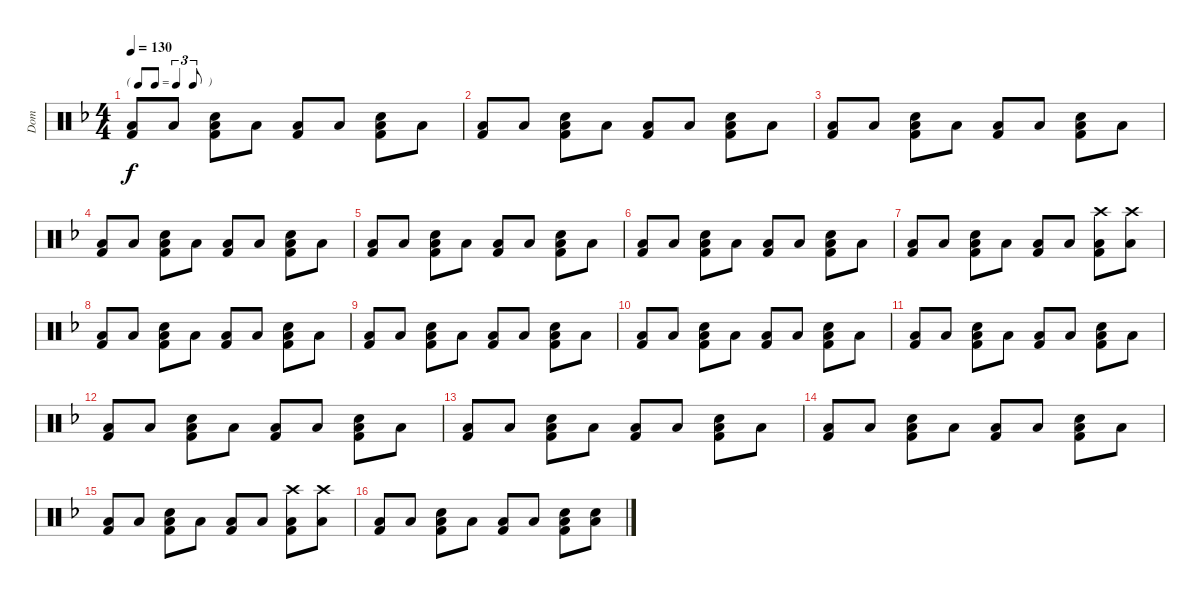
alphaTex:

\track ("Dom" "Dom") {instrument percussion}
\staff {score}
\articulation defaults
\ts (4 4)
\tf triplet8th
\tempo 130
\clef neutral
\ks dminor
("Low Tom (hit)" "Kick (hit) 2").8{dy f} "Low Tom (hit)".8 ("Electric Snare (hit)" "Low Tom (hit)" "Kick (hit) 2").8 "Low Tom (hit)".8 ("Low Tom (hit)" "Kick (hit) 2").8 "Low Tom (hit)".8 ("Electric Snare (hit)" "Low Tom (hit)" "Kick (hit) 2").8 "Low Tom (hit)".8 |
("Low Tom (hit)" "Kick (hit) 2").8 "Low Tom (hit)".8 ("Electric Snare (hit)" "Low Tom (hit)" "Kick (hit) 2").8 "Low Tom (hit)".8 ("Low Tom (hit)" "Kick (hit) 2").8 "Low Tom (hit)".8 ("Electric Snare (hit)" "Low Tom (hit)" "Kick (hit) 2").8 "Low Tom (hit)".8 |
("Low Tom (hit)" "Kick (hit) 2").8 "Low Tom (hit)".8 ("Electric Snare (hit)" "Low Tom (hit)" "Kick (hit) 2").8 "Low Tom (hit)".8 ("Low Tom (hit)" "Kick (hit) 2").8 "Low Tom (hit)".8 ("Electric Snare (hit)" "Low Tom (hit)" "Kick (hit) 2").8 "Low Tom (hit)".8 |
("Low Tom (hit)" "Kick (hit) 2").8 "Low Tom (hit)".8 ("Electric Snare (hit)" "Low Tom (hit)" "Kick (hit) 2").8 "Low Tom (hit)".8 ("Low Tom (hit)" "Kick (hit) 2").8 "Low Tom (hit)".8 ("Electric Snare (hit)" "Low Tom (hit)" "Kick (hit) 2").8 "Low Tom (hit)".8 |
("Low Tom (hit)" "Kick (hit) 2").8 "Low Tom (hit)".8 ("Electric Snare (hit)" "Low Tom (hit)" "Kick (hit) 2").8 "Low Tom (hit)".8 ("Low Tom (hit)" "Kick (hit) 2").8 "Low Tom (hit)".8 ("Electric Snare (hit)" "Low Tom (hit)" "Kick (hit) 2").8 "Low Tom (hit)".8 |
("Low Tom (hit)" "Kick (hit) 2").8 "Low Tom (hit)".8 ("Electric Snare (hit)" "Low Tom (hit)" "Kick (hit) 2").8 "Low Tom (hit)".8 ("Low Tom (hit)" "Kick (hit) 2").8 "Low Tom (hit)".8 ("Electric Snare (hit)" "Low Tom (hit)" "Kick (hit) 2").8 "Low Tom (hit)".8 |
("Low Tom (hit)" "Kick (hit) 2").8 "Low Tom (hit)".8 ("Electric Snare (hit)" "Low Tom (hit)" "Kick (hit) 2").8 "Low Tom (hit)".8 ("Low Tom (hit)" "Kick (hit) 2").8 "Low Tom (hit)".8 ("Crash high (hit)" "Low Tom (hit)" "Kick (hit) 2").8 ("Crash high (hit)" "Low Tom (hit)").8 |
("Low Tom (hit)" "Kick (hit) 2").8 "Low Tom (hit)".8 ("Electric Snare (hit)" "Low Tom (hit)" "Kick (hit) 2").8 "Low Tom (hit)".8 ("Low Tom (hit)" "Kick (hit) 2").8 "Low Tom (hit)".8 ("Electric Snare (hit)" "Low Tom (hit)" "Kick (hit) 2").8 "Low Tom (hit)".8 |
("Low Tom (hit)" "Kick (hit) 2").8 "Low Tom (hit)".8 ("Electric Snare (hit)" "Low Tom (hit)" "Kick (hit) 2").8 "Low Tom (hit)".8 ("Low Tom (hit)" "Kick (hit) 2").8 "Low Tom (hit)".8 ("Electric Snare (hit)" "Low Tom (hit)" "Kick (hit) 2").8 "Low Tom (hit)".8 |
("Low Tom (hit)" "Kick (hit) 2").8 "Low Tom (hit)".8 ("Electric Snare (hit)" "Low Tom (hit)" "Kick (hit) 2").8 "Low Tom (hit)".8 ("Low Tom (hit)" "Kick (hit) 2").8 "Low Tom (hit)".8 ("Electric Snare (hit)" "Low Tom (hit)" "Kick (hit) 2").8 "Low Tom (hit)".8 |
("Low Tom (hit)" "Kick (hit) 2").8 "Low Tom (hit)".8 ("Electric Snare (hit)" "Low Tom (hit)" "Kick (hit) 2").8 "Low Tom (hit)".8 ("Low Tom (hit)" "Kick (hit) 2").8 "Low Tom (hit)".8 ("Electric Snare (hit)" "Low Tom (hit)" "Kick (hit) 2").8 "Low Tom (hit)".8 |
("Low Tom (hit)" "Kick (hit) 2").8 "Low Tom (hit)".8 ("Electric Snare (hit)" "Low Tom (hit)" "Kick (hit) 2").8 "Low Tom (hit)".8 ("Low Tom (hit)" "Kick (hit) 2").8 "Low Tom (hit)".8 ("Electric Snare (hit)" "Low Tom (hit)" "Kick (hit) 2").8 "Low Tom (hit)".8 |
("Low Tom (hit)" "Kick (hit) 2").8 "Low Tom (hit)".8 ("Electric Snare (hit)" "Low Tom (hit)" "Kick (hit) 2").8 "Low Tom (hit)".8 ("Low Tom (hit)" "Kick (hit) 2").8 "Low Tom (hit)".8 ("Electric Snare (hit)" "Low Tom (hit)" "Kick (hit) 2").8 "Low Tom (hit)".8 |
("Low Tom (hit)" "Kick (hit) 2").8 "Low Tom (hit)".8 ("Electric Snare (hit)" "Low Tom (hit)" "Kick (hit) 2").8 "Low Tom (hit)".8 ("Low Tom (hit)" "Kick (hit) 2").8 "Low Tom (hit)".8 ("Electric Snare (hit)" "Low Tom (hit)" "Kick (hit) 2").8 "Low Tom (hit)".8 |
("Low Tom (hit)" "Kick (hit) 2").8 "Low Tom (hit)".8 ("Electric Snare (hit)" "Low Tom (hit)" "Kick (hit) 2").8 "Low Tom (hit)".8 ("Low Tom (hit)" "Kick (hit) 2").8 "Low Tom (hit)".8 ("Crash high (hit)" "Low Tom (hit)" "Kick (hit) 2").8 ("Crash high (hit)" "Low Tom (hit)").8 |
("Low Tom (hit)" "Kick (hit) 2").8 "Low Tom (hit)".8 ("Electric Snare (hit)" "Low Tom (hit)" "Kick (hit) 2").8 "Low Tom (hit)".8 ("Low Tom (hit)" "Kick (hit) 2").8 "Low Tom (hit)".8 ("Electric Snare (hit)" "Low Tom (hit)" "Kick (hit) 2").8 ("Electric Snare (hit)" "Low Tom (hit)").8
